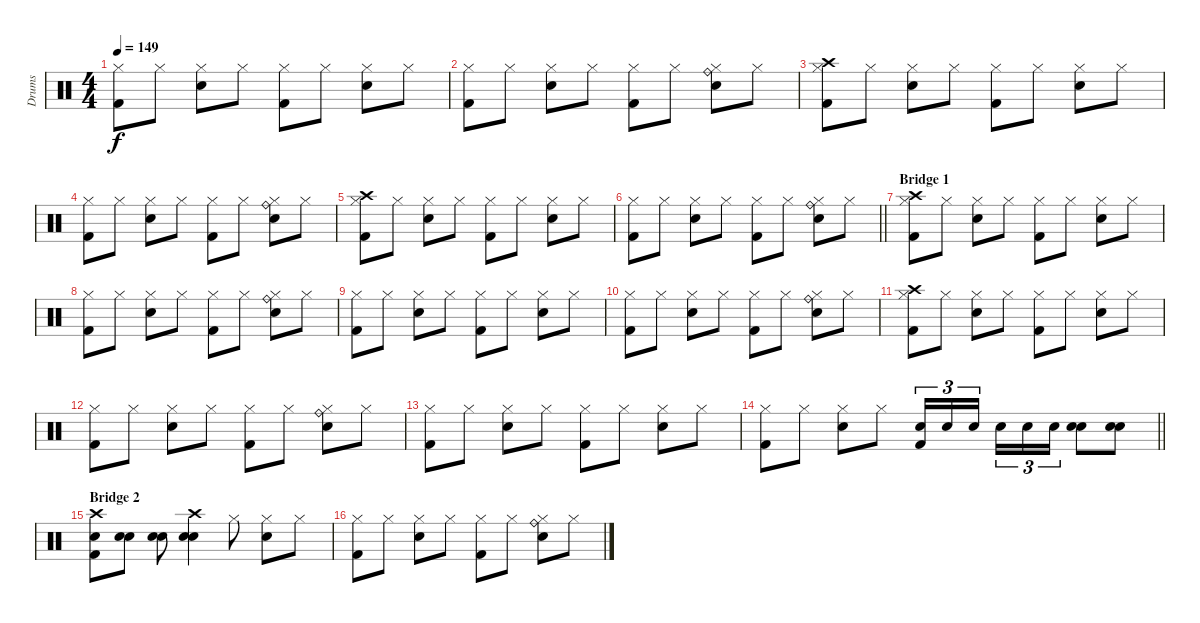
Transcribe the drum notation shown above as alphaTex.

\track ("Drums" "Drums") {instrument percussion}
\staff {score}
\articulation defaults
\ts (4 4)
\tempo 149
\clef neutral
\ks c
("Hi-Hat (closed)" "Kick (hit) 2").8{dy f} "Hi-Hat (closed)".8 ("Hi-Hat (closed)" "Electric Snare (hit)").8 "Hi-Hat (closed)".8 ("Hi-Hat (closed)" "Kick (hit) 2").8 "Hi-Hat (closed)".8 ("Hi-Hat (closed)" "Electric Snare (hit)").8 "Hi-Hat (closed)".8 |
("Hi-Hat (closed)" "Kick (hit) 2").8 "Hi-Hat (closed)".8 ("Hi-Hat (closed)" "Electric Snare (hit)").8 "Hi-Hat (closed)".8 ("Hi-Hat (closed)" "Kick (hit) 2").8 "Hi-Hat (closed)".8 ("Ride (bell)" "Hi-Hat (closed)" "Electric Snare (hit)").8 "Hi-Hat (closed)".8 |
("Hi-Hat (closed)" "Crash high (hit)" "Kick (hit) 2").8 "Hi-Hat (closed)".8 ("Hi-Hat (closed)" "Electric Snare (hit)").8 "Hi-Hat (closed)".8 ("Hi-Hat (closed)" "Kick (hit) 2").8 "Hi-Hat (closed)".8 ("Hi-Hat (closed)" "Electric Snare (hit)").8 "Hi-Hat (closed)".8 |
("Hi-Hat (closed)" "Kick (hit) 2").8 "Hi-Hat (closed)".8 ("Hi-Hat (closed)" "Electric Snare (hit)").8 "Hi-Hat (closed)".8 ("Hi-Hat (closed)" "Kick (hit) 2").8 "Hi-Hat (closed)".8 ("Ride (bell)" "Hi-Hat (closed)" "Electric Snare (hit)").8 "Hi-Hat (closed)".8 |
("Hi-Hat (closed)" "Crash high (hit)" "Kick (hit) 2").8 "Hi-Hat (closed)".8 ("Hi-Hat (closed)" "Electric Snare (hit)").8 "Hi-Hat (closed)".8 ("Hi-Hat (closed)" "Kick (hit) 2").8 "Hi-Hat (closed)".8 ("Hi-Hat (closed)" "Electric Snare (hit)").8 "Hi-Hat (closed)".8 |
\barLineRight lightlight
("Hi-Hat (closed)" "Kick (hit) 2").8 "Hi-Hat (closed)".8 ("Hi-Hat (closed)" "Electric Snare (hit)").8 "Hi-Hat (closed)".8 ("Hi-Hat (closed)" "Kick (hit) 2").8 "Hi-Hat (closed)".8 ("Ride (bell)" "Hi-Hat (closed)" "Electric Snare (hit)").8 "Hi-Hat (closed)".8 |
\section ("" "Bridge 1")
("Hi-Hat (closed)" "Crash high (hit)" "Kick (hit) 2").8 "Hi-Hat (closed)".8 ("Hi-Hat (closed)" "Electric Snare (hit)").8 "Hi-Hat (closed)".8 ("Hi-Hat (closed)" "Kick (hit) 2").8 "Hi-Hat (closed)".8 ("Hi-Hat (closed)" "Electric Snare (hit)").8 "Hi-Hat (closed)".8 |
("Hi-Hat (closed)" "Kick (hit) 2").8 "Hi-Hat (closed)".8 ("Hi-Hat (closed)" "Electric Snare (hit)").8 "Hi-Hat (closed)".8 ("Hi-Hat (closed)" "Kick (hit) 2").8 "Hi-Hat (closed)".8 ("Ride (bell)" "Hi-Hat (closed)" "Electric Snare (hit)").8 "Hi-Hat (closed)".8 |
("Hi-Hat (closed)" "Kick (hit) 2").8 "Hi-Hat (closed)".8 ("Hi-Hat (closed)" "Electric Snare (hit)").8 "Hi-Hat (closed)".8 ("Hi-Hat (closed)" "Kick (hit) 2").8 "Hi-Hat (closed)".8 ("Hi-Hat (closed)" "Electric Snare (hit)").8 "Hi-Hat (closed)".8 |
("Hi-Hat (closed)" "Kick (hit) 2").8 "Hi-Hat (closed)".8 ("Hi-Hat (closed)" "Electric Snare (hit)").8 "Hi-Hat (closed)".8 ("Hi-Hat (closed)" "Kick (hit) 2").8 "Hi-Hat (closed)".8 ("Ride (bell)" "Hi-Hat (closed)" "Electric Snare (hit)").8 "Hi-Hat (closed)".8 |
("Hi-Hat (closed)" "Crash high (hit)" "Kick (hit) 2").8 "Hi-Hat (closed)".8 ("Hi-Hat (closed)" "Electric Snare (hit)").8 "Hi-Hat (closed)".8 ("Hi-Hat (closed)" "Kick (hit) 2").8 "Hi-Hat (closed)".8 ("Hi-Hat (closed)" "Electric Snare (hit)").8 "Hi-Hat (closed)".8 |
("Hi-Hat (closed)" "Kick (hit) 2").8 "Hi-Hat (closed)".8 ("Hi-Hat (closed)" "Electric Snare (hit)").8 "Hi-Hat (closed)".8 ("Hi-Hat (closed)" "Kick (hit) 2").8 "Hi-Hat (closed)".8 ("Ride (bell)" "Hi-Hat (closed)" "Electric Snare (hit)").8 "Hi-Hat (closed)".8 |
("Hi-Hat (closed)" "Kick (hit) 2").8 "Hi-Hat (closed)".8 ("Hi-Hat (closed)" "Electric Snare (hit)").8 "Hi-Hat (closed)".8 ("Hi-Hat (closed)" "Kick (hit) 2").8 "Hi-Hat (closed)".8 ("Hi-Hat (closed)" "Electric Snare (hit)").8 "Hi-Hat (closed)".8 |
\barLineRight lightlight
("Hi-Hat (closed)" "Kick (hit) 2").8 "Hi-Hat (closed)".8 ("Hi-Hat (closed)" "Electric Snare (hit)").8 "Hi-Hat (closed)".8 ("Electric Snare (hit)" "Kick (hit) 2").16{tu (3 2)} "Electric Snare (hit)".16{tu (3 2)} "Electric Snare (hit)".16{tu (3 2) beam splitsecondary} "Electric Snare (hit)".16{tu (3 2)} "Electric Snare (hit)".16{tu (3 2)} "Electric Snare (hit)".16{tu (3 2)} ("Electric Snare (hit)" "Electric Snare (hit)").8 ("Electric Snare (hit)" "Electric Snare (hit)").8 |
\section ("" "Bridge 2")
("Electric Snare (hit)" "Crash high (hit)" "Kick (hit) 2").8 ("Electric Snare (hit)" "Electric Snare (hit)").8 ("Electric Snare (hit)" "Electric Snare (hit)").8 ("Electric Snare (hit)" "Electric Snare (hit)" "Crash high (hit)").4 "Hi-Hat (closed)".8 ("Hi-Hat (closed)" "Electric Snare (hit)").8 "Hi-Hat (closed)".8 |
("Hi-Hat (closed)" "Kick (hit) 2").8 "Hi-Hat (closed)".8 ("Hi-Hat (closed)" "Electric Snare (hit)").8 "Hi-Hat (closed)".8 ("Hi-Hat (closed)" "Kick (hit) 2").8 "Hi-Hat (closed)".8 ("Ride (bell)" "Hi-Hat (closed)" "Electric Snare (hit)").8 "Hi-Hat (closed)".8
